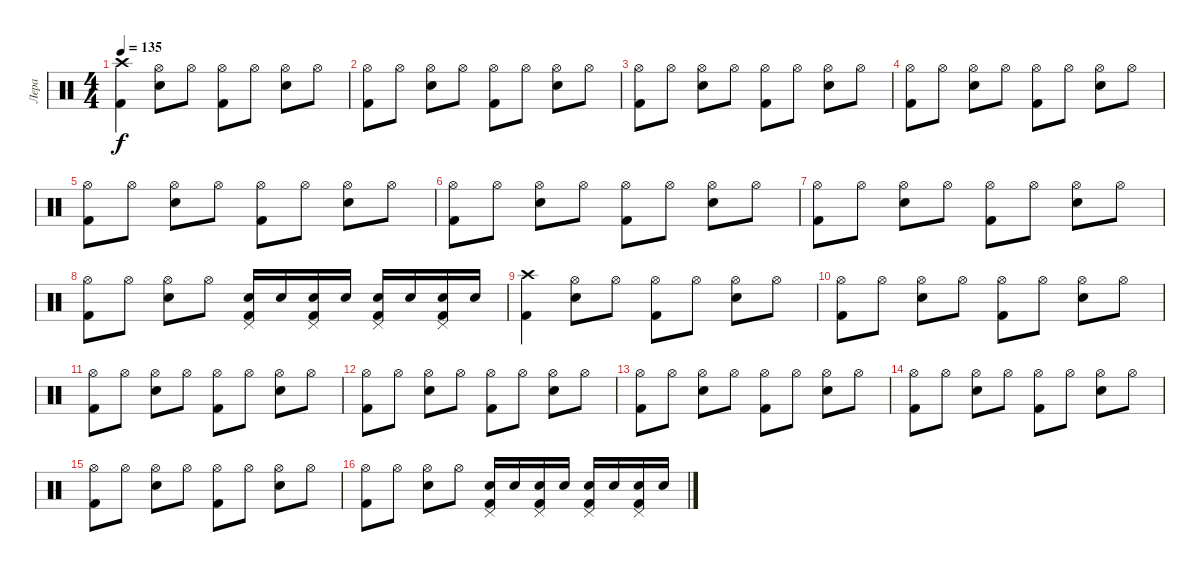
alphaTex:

\track ("Лера" "Лера") {instrument percussion}
\staff {score}
\articulation defaults
\ts (4 4)
\tempo 135
\clef neutral
\ks c
("Crash high (hit)" "Kick (hit) 2").4{dy f} ("Hi-Hat (open)" "Electric Snare (hit)").8 "Hi-Hat (open)".8 ("Hi-Hat (open)" "Kick (hit) 2").8 "Hi-Hat (open)".8 ("Hi-Hat (open)" "Electric Snare (hit)").8 "Hi-Hat (open)".8 |
("Hi-Hat (open)" "Kick (hit) 2").8 "Hi-Hat (open)".8 ("Hi-Hat (open)" "Electric Snare (hit)").8 "Hi-Hat (open)".8 ("Hi-Hat (open)" "Kick (hit) 2").8 "Hi-Hat (open)".8 ("Hi-Hat (open)" "Electric Snare (hit)").8 "Hi-Hat (open)".8 |
("Hi-Hat (open)" "Kick (hit) 2").8 "Hi-Hat (open)".8 ("Hi-Hat (open)" "Electric Snare (hit)").8 "Hi-Hat (open)".8 ("Hi-Hat (open)" "Kick (hit) 2").8 "Hi-Hat (open)".8 ("Hi-Hat (open)" "Electric Snare (hit)").8 "Hi-Hat (open)".8 |
("Hi-Hat (open)" "Kick (hit) 2").8 "Hi-Hat (open)".8 ("Hi-Hat (open)" "Electric Snare (hit)").8 "Hi-Hat (open)".8 ("Hi-Hat (open)" "Kick (hit) 2").8 "Hi-Hat (open)".8 ("Hi-Hat (open)" "Electric Snare (hit)").8 "Hi-Hat (open)".8 |
("Hi-Hat (open)" "Kick (hit) 2").8 "Hi-Hat (open)".8 ("Hi-Hat (open)" "Electric Snare (hit)").8 "Hi-Hat (open)".8 ("Hi-Hat (open)" "Kick (hit) 2").8 "Hi-Hat (open)".8 ("Hi-Hat (open)" "Electric Snare (hit)").8 "Hi-Hat (open)".8 |
("Hi-Hat (open)" "Kick (hit) 2").8 "Hi-Hat (open)".8 ("Hi-Hat (open)" "Electric Snare (hit)").8 "Hi-Hat (open)".8 ("Hi-Hat (open)" "Kick (hit) 2").8 "Hi-Hat (open)".8 ("Hi-Hat (open)" "Electric Snare (hit)").8 "Hi-Hat (open)".8 |
("Hi-Hat (open)" "Kick (hit) 2").8 "Hi-Hat (open)".8 ("Hi-Hat (open)" "Electric Snare (hit)").8 "Hi-Hat (open)".8 ("Hi-Hat (open)" "Kick (hit) 2").8 "Hi-Hat (open)".8 ("Hi-Hat (open)" "Electric Snare (hit)").8 "Hi-Hat (open)".8 |
("Hi-Hat (open)" "Kick (hit) 2").8 "Hi-Hat (open)".8 ("Hi-Hat (open)" "Electric Snare (hit)").8 "Hi-Hat (open)".8 ("Electric Snare (hit)" "Kick (hit) 2" "Pedal Hi-Hat (hit)").16 "Electric Snare (hit)".16 ("Electric Snare (hit)" "Kick (hit) 2" "Pedal Hi-Hat (hit)").16 "Electric Snare (hit)".16 ("Electric Snare (hit)" "Kick (hit) 2" "Pedal Hi-Hat (hit)").16 "Electric Snare (hit)".16 ("Electric Snare (hit)" "Kick (hit) 2" "Pedal Hi-Hat (hit)").16 "Electric Snare (hit)".16 |
("Crash high (hit)" "Kick (hit) 2").4 ("Hi-Hat (open)" "Electric Snare (hit)").8 "Hi-Hat (open)".8 ("Hi-Hat (open)" "Kick (hit) 2").8 "Hi-Hat (open)".8 ("Hi-Hat (open)" "Electric Snare (hit)").8 "Hi-Hat (open)".8 |
("Hi-Hat (open)" "Kick (hit) 2").8 "Hi-Hat (open)".8 ("Hi-Hat (open)" "Electric Snare (hit)").8 "Hi-Hat (open)".8 ("Hi-Hat (open)" "Kick (hit) 2").8 "Hi-Hat (open)".8 ("Hi-Hat (open)" "Electric Snare (hit)").8 "Hi-Hat (open)".8 |
("Hi-Hat (open)" "Kick (hit) 2").8 "Hi-Hat (open)".8 ("Hi-Hat (open)" "Electric Snare (hit)").8 "Hi-Hat (open)".8 ("Hi-Hat (open)" "Kick (hit) 2").8 "Hi-Hat (open)".8 ("Hi-Hat (open)" "Electric Snare (hit)").8 "Hi-Hat (open)".8 |
("Hi-Hat (open)" "Kick (hit) 2").8 "Hi-Hat (open)".8 ("Hi-Hat (open)" "Electric Snare (hit)").8 "Hi-Hat (open)".8 ("Hi-Hat (open)" "Kick (hit) 2").8 "Hi-Hat (open)".8 ("Hi-Hat (open)" "Electric Snare (hit)").8 "Hi-Hat (open)".8 |
("Hi-Hat (open)" "Kick (hit) 2").8 "Hi-Hat (open)".8 ("Hi-Hat (open)" "Electric Snare (hit)").8 "Hi-Hat (open)".8 ("Hi-Hat (open)" "Kick (hit) 2").8 "Hi-Hat (open)".8 ("Hi-Hat (open)" "Electric Snare (hit)").8 "Hi-Hat (open)".8 |
("Hi-Hat (open)" "Kick (hit) 2").8 "Hi-Hat (open)".8 ("Hi-Hat (open)" "Electric Snare (hit)").8 "Hi-Hat (open)".8 ("Hi-Hat (open)" "Kick (hit) 2").8 "Hi-Hat (open)".8 ("Hi-Hat (open)" "Electric Snare (hit)").8 "Hi-Hat (open)".8 |
("Hi-Hat (open)" "Kick (hit) 2").8 "Hi-Hat (open)".8 ("Hi-Hat (open)" "Electric Snare (hit)").8 "Hi-Hat (open)".8 ("Hi-Hat (open)" "Kick (hit) 2").8 "Hi-Hat (open)".8 ("Hi-Hat (open)" "Electric Snare (hit)").8 "Hi-Hat (open)".8 |
("Hi-Hat (open)" "Kick (hit) 2").8 "Hi-Hat (open)".8 ("Hi-Hat (open)" "Electric Snare (hit)").8 "Hi-Hat (open)".8 ("Electric Snare (hit)" "Kick (hit) 2" "Pedal Hi-Hat (hit)").16 "Electric Snare (hit)".16 ("Electric Snare (hit)" "Kick (hit) 2" "Pedal Hi-Hat (hit)").16 "Electric Snare (hit)".16 ("Electric Snare (hit)" "Kick (hit) 2" "Pedal Hi-Hat (hit)").16 "Electric Snare (hit)".16 ("Electric Snare (hit)" "Kick (hit) 2" "Pedal Hi-Hat (hit)").16 "Electric Snare (hit)".16
